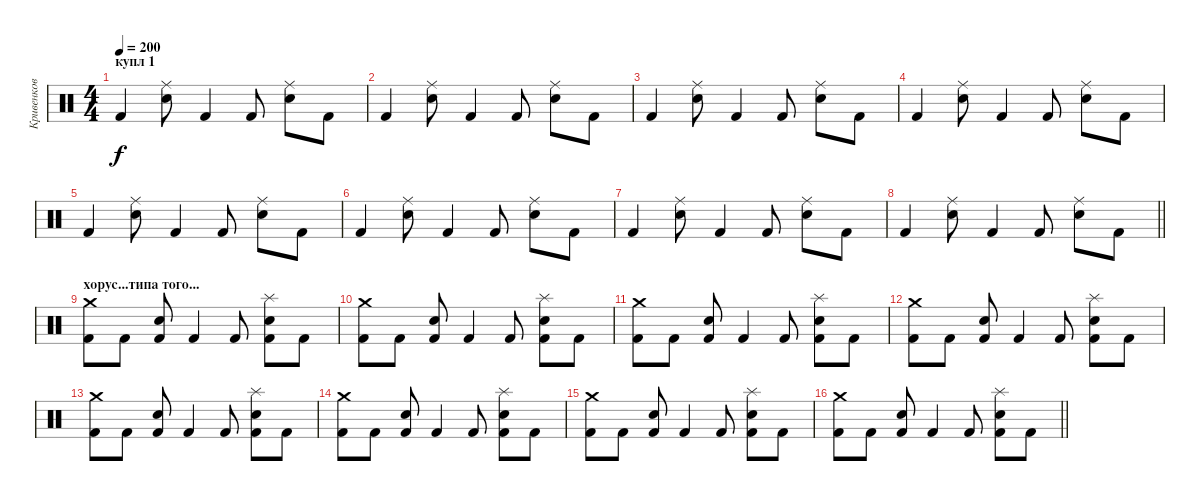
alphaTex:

\track ("Кривенков" "Кривенков") {instrument percussion}
\staff {score}
\articulation defaults
\ts (4 4)
\section ("" "купл 1")
\tempo 200
\clef neutral
\ks c "Kick (hit) 2".4{dy f}
("Ride (middle)" "Electric Snare (hit)").8 "Kick (hit) 2".4 "Kick (hit) 2".8 ("Ride (middle)" "Electric Snare (hit)").8 "Kick (hit) 2".8 |
"Kick (hit) 2".4 ("Ride (middle)" "Electric Snare (hit)").8 "Kick (hit) 2".4 "Kick (hit) 2".8 ("Ride (middle)" "Electric Snare (hit)").8 "Kick (hit) 2".8 |
"Kick (hit) 2".4 ("Ride (middle)" "Electric Snare (hit)").8 "Kick (hit) 2".4 "Kick (hit) 2".8 ("Ride (middle)" "Electric Snare (hit)").8 "Kick (hit) 2".8 |
"Kick (hit) 2".4 ("Ride (middle)" "Electric Snare (hit)").8 "Kick (hit) 2".4 "Kick (hit) 2".8 ("Ride (middle)" "Electric Snare (hit)").8 "Kick (hit) 2".8 |
"Kick (hit) 2".4 ("Ride (middle)" "Electric Snare (hit)").8 "Kick (hit) 2".4 "Kick (hit) 2".8 ("Ride (middle)" "Electric Snare (hit)").8 "Kick (hit) 2".8 |
"Kick (hit) 2".4 ("Ride (middle)" "Electric Snare (hit)").8 "Kick (hit) 2".4 "Kick (hit) 2".8 ("Ride (middle)" "Electric Snare (hit)").8 "Kick (hit) 2".8 |
"Kick (hit) 2".4 ("Ride (middle)" "Electric Snare (hit)").8 "Kick (hit) 2".4 "Kick (hit) 2".8 ("Ride (middle)" "Electric Snare (hit)").8 "Kick (hit) 2".8 |
\barLineRight lightlight "Kick (hit) 2".4
("Ride (middle)" "Electric Snare (hit)").8 "Kick (hit) 2".4 "Kick (hit) 2".8 ("Ride (middle)" "Electric Snare (hit)").8 "Kick (hit) 2".8 |
\section ("" "хорус...типа того...")
("Crash medium (hit)" "Kick (hit) 2").8 "Kick (hit) 2".8 ("Electric Snare (hit)" "Kick (hit) 2").8 "Kick (hit) 2".4 "Kick (hit) 2".8 ("Splash (hit)" "Electric Snare (hit)" "Kick (hit) 2").8 "Kick (hit) 2".8 |
("Crash medium (hit)" "Kick (hit) 2").8 "Kick (hit) 2".8 ("Electric Snare (hit)" "Kick (hit) 2").8 "Kick (hit) 2".4 "Kick (hit) 2".8 ("Splash (hit)" "Electric Snare (hit)" "Kick (hit) 2").8 "Kick (hit) 2".8 |
("Crash medium (hit)" "Kick (hit) 2").8 "Kick (hit) 2".8 ("Electric Snare (hit)" "Kick (hit) 2").8 "Kick (hit) 2".4 "Kick (hit) 2".8 ("Splash (hit)" "Electric Snare (hit)" "Kick (hit) 2").8 "Kick (hit) 2".8 |
("Crash medium (hit)" "Kick (hit) 2").8 "Kick (hit) 2".8 ("Electric Snare (hit)" "Kick (hit) 2").8 "Kick (hit) 2".4 "Kick (hit) 2".8 ("Splash (hit)" "Electric Snare (hit)" "Kick (hit) 2").8 "Kick (hit) 2".8 |
("Crash medium (hit)" "Kick (hit) 2").8 "Kick (hit) 2".8 ("Electric Snare (hit)" "Kick (hit) 2").8 "Kick (hit) 2".4 "Kick (hit) 2".8 ("Splash (hit)" "Electric Snare (hit)" "Kick (hit) 2").8 "Kick (hit) 2".8 |
("Crash medium (hit)" "Kick (hit) 2").8 "Kick (hit) 2".8 ("Electric Snare (hit)" "Kick (hit) 2").8 "Kick (hit) 2".4 "Kick (hit) 2".8 ("Splash (hit)" "Electric Snare (hit)" "Kick (hit) 2").8 "Kick (hit) 2".8 |
("Crash medium (hit)" "Kick (hit) 2").8 "Kick (hit) 2".8 ("Electric Snare (hit)" "Kick (hit) 2").8 "Kick (hit) 2".4 "Kick (hit) 2".8 ("Splash (hit)" "Electric Snare (hit)" "Kick (hit) 2").8 "Kick (hit) 2".8 |
\barLineRight lightlight
("Crash medium (hit)" "Kick (hit) 2").8 "Kick (hit) 2".8 ("Electric Snare (hit)" "Kick (hit) 2").8 "Kick (hit) 2".4 "Kick (hit) 2".8 ("Splash (hit)" "Electric Snare (hit)" "Kick (hit) 2").8 "Kick (hit) 2".8
